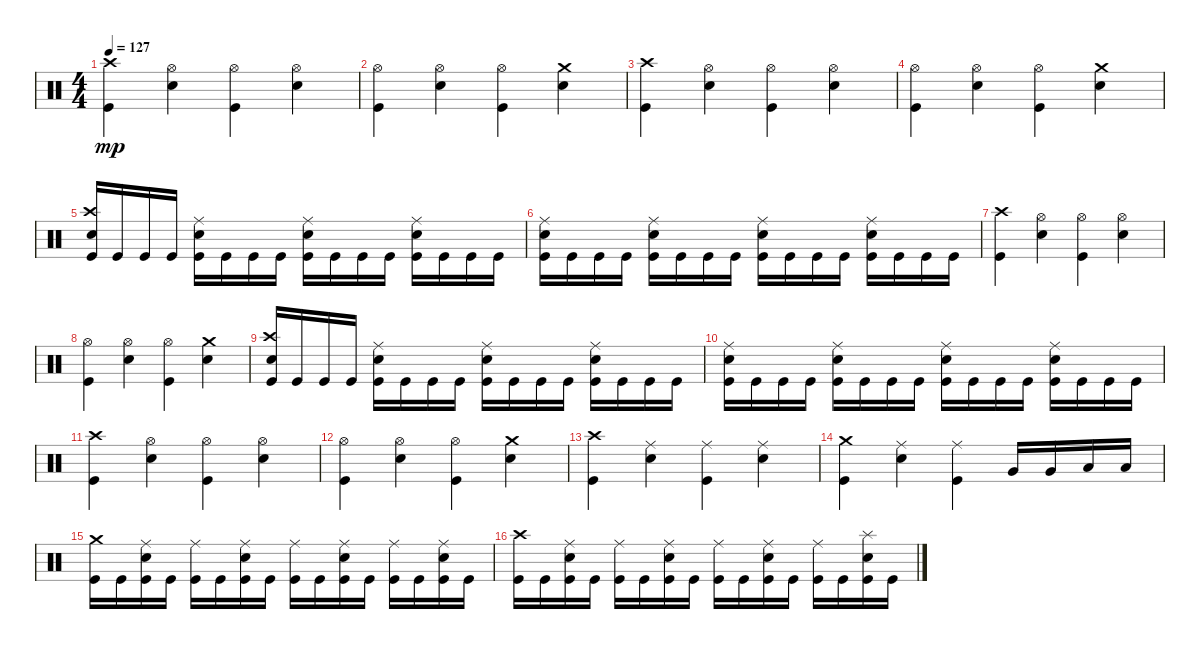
\track "" {instrument percussion}
\staff {score}
\articulation defaults
\ts (4 4)
\tempo 127
\clef neutral
\ks c
("Kick (hit)" "Crash high (hit)").4{dy mp} ("Hi-Hat (open)" "Snare (hit) 2").4 ("Hi-Hat (open)" "Kick (hit)").4 ("Hi-Hat (open)" "Snare (hit) 2").4 |
("Hi-Hat (open)" "Kick (hit)").4 ("Hi-Hat (open)" "Snare (hit) 2").4 ("Hi-Hat (open)" "Kick (hit)").4 ("Snare (hit) 2" "Crash medium (hit)").4 |
("Kick (hit)" "Crash high (hit)").4 ("Hi-Hat (open)" "Snare (hit) 2").4 ("Hi-Hat (open)" "Kick (hit)").4 ("Hi-Hat (open)" "Snare (hit) 2").4 |
("Hi-Hat (open)" "Kick (hit)").4 ("Hi-Hat (open)" "Snare (hit) 2").4 ("Hi-Hat (open)" "Kick (hit)").4 ("Snare (hit) 2" "Crash medium (hit)").4 |
("Kick (hit)" "Snare (hit) 2" "Crash high (hit)").16 "Kick (hit)".16 "Kick (hit)".16 "Kick (hit)".16 ("Kick (hit)" "Snare (hit) 2" "Ride (middle)").16 "Kick (hit)".16 "Kick (hit)".16 "Kick (hit)".16 ("Kick (hit)" "Snare (hit) 2" "Ride (middle)").16 "Kick (hit)".16 "Kick (hit)".16 "Kick (hit)".16 ("Kick (hit)" "Snare (hit) 2" "Ride (middle)").16 "Kick (hit)".16 "Kick (hit)".16 "Kick (hit)".16 |
("Kick (hit)" "Snare (hit) 2" "Ride (middle)").16 "Kick (hit)".16 "Kick (hit)".16 "Kick (hit)".16 ("Kick (hit)" "Snare (hit) 2" "Ride (middle)").16 "Kick (hit)".16 "Kick (hit)".16 "Kick (hit)".16 ("Kick (hit)" "Snare (hit) 2" "Ride (middle)").16 "Kick (hit)".16 "Kick (hit)".16 "Kick (hit)".16 ("Kick (hit)" "Snare (hit) 2" "Ride (middle)").16 "Kick (hit)".16 "Kick (hit)".16 "Kick (hit)".16 |
("Kick (hit)" "Crash high (hit)").4 ("Hi-Hat (open)" "Snare (hit) 2").4 ("Hi-Hat (open)" "Kick (hit)").4 ("Hi-Hat (open)" "Snare (hit) 2").4 |
("Hi-Hat (open)" "Kick (hit)").4 ("Hi-Hat (open)" "Snare (hit) 2").4 ("Hi-Hat (open)" "Kick (hit)").4 ("Snare (hit) 2" "Crash medium (hit)").4 |
("Kick (hit)" "Snare (hit) 2" "Crash high (hit)").16 "Kick (hit)".16 "Kick (hit)".16 "Kick (hit)".16 ("Kick (hit)" "Snare (hit) 2" "Ride (middle)").16 "Kick (hit)".16 "Kick (hit)".16 "Kick (hit)".16 ("Kick (hit)" "Snare (hit) 2" "Ride (middle)").16 "Kick (hit)".16 "Kick (hit)".16 "Kick (hit)".16 ("Kick (hit)" "Snare (hit) 2" "Ride (middle)").16 "Kick (hit)".16 "Kick (hit)".16 "Kick (hit)".16 |
("Kick (hit)" "Snare (hit) 2" "Ride (middle)").16 "Kick (hit)".16 "Kick (hit)".16 "Kick (hit)".16 ("Kick (hit)" "Snare (hit) 2" "Ride (middle)").16 "Kick (hit)".16 "Kick (hit)".16 "Kick (hit)".16 ("Kick (hit)" "Snare (hit) 2" "Ride (middle)").16 "Kick (hit)".16 "Kick (hit)".16 "Kick (hit)".16 ("Kick (hit)" "Snare (hit) 2" "Ride (middle)").16 "Kick (hit)".16 "Kick (hit)".16 "Kick (hit)".16 |
("Kick (hit)" "Crash high (hit)").4 ("Hi-Hat (open)" "Snare (hit) 2").4 ("Hi-Hat (open)" "Kick (hit)").4 ("Hi-Hat (open)" "Snare (hit) 2").4 |
("Hi-Hat (open)" "Kick (hit)").4 ("Hi-Hat (open)" "Snare (hit) 2").4 ("Hi-Hat (open)" "Kick (hit)").4 ("Snare (hit) 2" "Crash medium (hit)").4 |
("Crash high (hit)" "Kick (hit)").4 ("Snare (hit) 2" "Ride (middle)").4 ("Kick (hit)" "Ride (middle)").4 ("Snare (hit) 2" "Ride (middle)").4 |
("Crash medium (hit)" "Kick (hit)").4 ("Snare (hit) 2" "Ride (middle)").4 ("Kick (hit)" "Ride (middle)").4 "Very Low Tom (hit)".16 "Very Low Tom (hit)".16 "Low Tom (hit)".16 "Low Tom (hit)".16 |
("Kick (hit)" "Crash medium (hit)").16 "Kick (hit)".16 ("Kick (hit)" "Snare (hit) 2" "Ride (middle)").16 "Kick (hit)".16 ("Kick (hit)" "Ride (middle)").16 "Kick (hit)".16 ("Kick (hit)" "Snare (hit) 2" "Ride (middle)").16 "Kick (hit)".16 ("Kick (hit)" "Ride (middle)").16 "Kick (hit)".16 ("Kick (hit)" "Snare (hit) 2" "Ride (middle)").16 "Kick (hit)".16 ("Kick (hit)" "Ride (middle)").16 "Kick (hit)".16 ("Kick (hit)" "Snare (hit) 2" "Ride (middle)").16 "Kick (hit)".16 |
("Crash high (hit)" "Kick (hit)").16 "Kick (hit)".16 ("Kick (hit)" "Ride (middle)" "Snare (hit) 2").16 "Kick (hit)".16 ("Kick (hit)" "Ride (middle)").16 "Kick (hit)".16 ("Kick (hit)" "Ride (middle)" "Snare (hit) 2").16 "Kick (hit)".16 ("Kick (hit)" "Ride (middle)").16 "Kick (hit)".16 ("Kick (hit)" "Ride (middle)" "Snare (hit) 2").16 "Kick (hit)".16 ("Kick (hit)" "Ride (middle)").16 "Kick (hit)".16 ("Kick (hit)" "Splash (hit)" "Snare (hit) 2").16 "Kick (hit)".16
